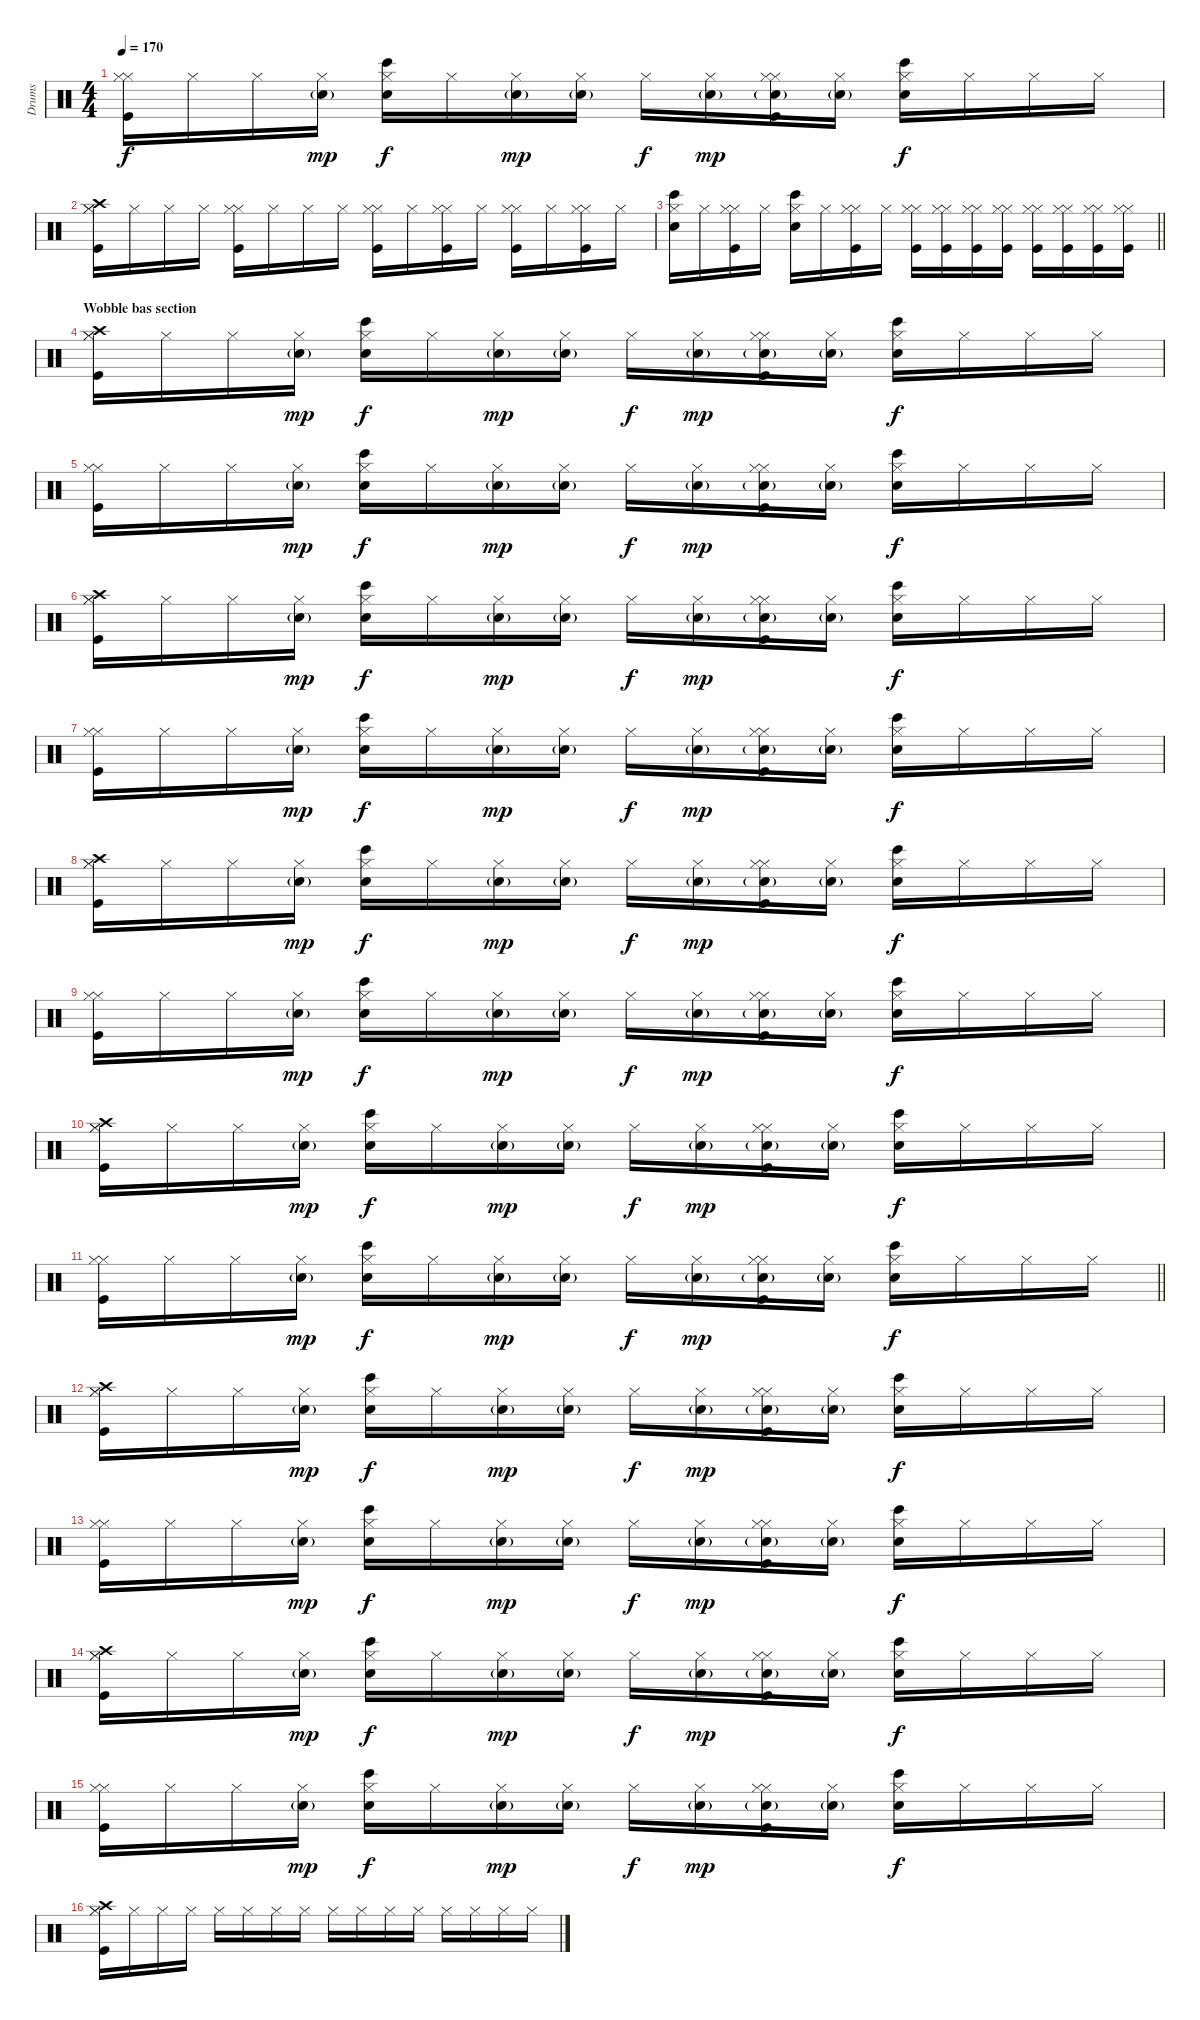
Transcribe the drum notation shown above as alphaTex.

\track ("Drums" "Drums") {instrument percussion}
\staff {score}
\articulation defaults
\ts (4 4)
\tempo 170
\clef neutral
\ks c
("Hi-Hat (closed)" "Kick (hit)" "Hi-Hat (closed)").16{dy f} "Hi-Hat (closed)".16 "Hi-Hat (closed)".16 ("Snare (hit) 2"{g} "Hi-Hat (closed)").16{dy mp} ("Bongo High (hit)" "Snare (hit) 2" "Hi-Hat (closed)").16{dy f} "Hi-Hat (closed)".16 ("Snare (hit) 2"{g} "Hi-Hat (closed)").16{dy mp} ("Snare (hit) 2"{g} "Hi-Hat (closed)").16 "Hi-Hat (closed)".16{dy f} ("Snare (hit) 2"{g} "Hi-Hat (closed)").16{dy mp} ("Kick (hit)" "Hi-Hat (closed)" "Snare (hit) 2"{g} "Hi-Hat (closed)").16 ("Snare (hit) 2"{g} "Hi-Hat (closed)").16 ("Bongo High (hit)" "Snare (hit) 2" "Hi-Hat (closed)").16{dy f} "Hi-Hat (closed)".16 "Hi-Hat (closed)".16 "Hi-Hat (closed)".16 |
("Kick (hit)" "Hi-Hat (closed)" "Hi-Hat (closed)" "Crash high (hit)").16 "Hi-Hat (closed)".16 "Hi-Hat (closed)".16 "Hi-Hat (closed)".16 ("Kick (hit)" "Hi-Hat (closed)" "Hi-Hat (closed)").16 "Hi-Hat (closed)".16 "Hi-Hat (closed)".16 "Hi-Hat (closed)".16 ("Kick (hit)" "Hi-Hat (closed)" "Hi-Hat (closed)").16 "Hi-Hat (closed)".16 ("Kick (hit)" "Hi-Hat (closed)" "Hi-Hat (closed)").16 "Hi-Hat (closed)".16 ("Kick (hit)" "Hi-Hat (closed)" "Hi-Hat (closed)").16 "Hi-Hat (closed)".16 ("Kick (hit)" "Hi-Hat (closed)" "Hi-Hat (closed)").16 "Hi-Hat (closed)".16 |
\barLineRight lightlight
("Snare (hit) 2" "Bongo High (hit)" "Hi-Hat (closed)").16 "Hi-Hat (closed)".16 ("Hi-Hat (closed)" "Kick (hit)" "Hi-Hat (closed)").16 "Hi-Hat (closed)".16 ("Snare (hit) 2" "Bongo High (hit)" "Hi-Hat (closed)").16 "Hi-Hat (closed)".16 ("Hi-Hat (closed)" "Kick (hit)" "Hi-Hat (closed)").16 "Hi-Hat (closed)".16 ("Kick (hit)" "Hi-Hat (closed)" "Hi-Hat (closed)").16 ("Kick (hit)" "Hi-Hat (closed)" "Hi-Hat (closed)").16 ("Kick (hit)" "Hi-Hat (closed)" "Hi-Hat (closed)").16 ("Kick (hit)" "Hi-Hat (closed)" "Hi-Hat (closed)").16 ("Kick (hit)" "Hi-Hat (closed)" "Hi-Hat (closed)").16 ("Kick (hit)" "Hi-Hat (closed)" "Hi-Hat (closed)").16 ("Kick (hit)" "Hi-Hat (closed)" "Hi-Hat (closed)").16 ("Kick (hit)" "Hi-Hat (closed)" "Hi-Hat (closed)").16 |
\section ("" "Wobble bas section")
("Kick (hit)" "Hi-Hat (closed)" "Hi-Hat (closed)" "Crash high (hit)").16 "Hi-Hat (closed)".16 "Hi-Hat (closed)".16 ("Snare (hit) 2"{g} "Hi-Hat (closed)").16{dy mp} ("Bongo High (hit)" "Snare (hit) 2" "Hi-Hat (closed)").16{dy f} "Hi-Hat (closed)".16 ("Snare (hit) 2"{g} "Hi-Hat (closed)").16{dy mp} ("Snare (hit) 2"{g} "Hi-Hat (closed)").16 "Hi-Hat (closed)".16{dy f} ("Snare (hit) 2"{g} "Hi-Hat (closed)").16{dy mp} ("Kick (hit)" "Hi-Hat (closed)" "Snare (hit) 2"{g} "Hi-Hat (closed)").16 ("Snare (hit) 2"{g} "Hi-Hat (closed)").16 ("Bongo High (hit)" "Snare (hit) 2" "Hi-Hat (closed)").16{dy f} "Hi-Hat (closed)".16 "Hi-Hat (closed)".16 "Hi-Hat (closed)".16 |
("Hi-Hat (closed)" "Kick (hit)" "Hi-Hat (closed)").16 "Hi-Hat (closed)".16 "Hi-Hat (closed)".16 ("Snare (hit) 2"{g} "Hi-Hat (closed)").16{dy mp} ("Bongo High (hit)" "Snare (hit) 2" "Hi-Hat (closed)").16{dy f} "Hi-Hat (closed)".16 ("Snare (hit) 2"{g} "Hi-Hat (closed)").16{dy mp} ("Snare (hit) 2"{g} "Hi-Hat (closed)").16 "Hi-Hat (closed)".16{dy f} ("Snare (hit) 2"{g} "Hi-Hat (closed)").16{dy mp} ("Kick (hit)" "Hi-Hat (closed)" "Snare (hit) 2"{g} "Hi-Hat (closed)").16 ("Snare (hit) 2"{g} "Hi-Hat (closed)").16 ("Bongo High (hit)" "Snare (hit) 2" "Hi-Hat (closed)").16{dy f} "Hi-Hat (closed)".16 "Hi-Hat (closed)".16 "Hi-Hat (closed)".16 |
("Kick (hit)" "Hi-Hat (closed)" "Hi-Hat (closed)" "Crash high (hit)").16 "Hi-Hat (closed)".16 "Hi-Hat (closed)".16 ("Snare (hit) 2"{g} "Hi-Hat (closed)").16{dy mp} ("Bongo High (hit)" "Snare (hit) 2" "Hi-Hat (closed)").16{dy f} "Hi-Hat (closed)".16 ("Snare (hit) 2"{g} "Hi-Hat (closed)").16{dy mp} ("Snare (hit) 2"{g} "Hi-Hat (closed)").16 "Hi-Hat (closed)".16{dy f} ("Snare (hit) 2"{g} "Hi-Hat (closed)").16{dy mp} ("Kick (hit)" "Hi-Hat (closed)" "Snare (hit) 2"{g} "Hi-Hat (closed)").16 ("Snare (hit) 2"{g} "Hi-Hat (closed)").16 ("Bongo High (hit)" "Snare (hit) 2" "Hi-Hat (closed)").16{dy f} "Hi-Hat (closed)".16 "Hi-Hat (closed)".16 "Hi-Hat (closed)".16 |
("Hi-Hat (closed)" "Kick (hit)" "Hi-Hat (closed)").16 "Hi-Hat (closed)".16 "Hi-Hat (closed)".16 ("Snare (hit) 2"{g} "Hi-Hat (closed)").16{dy mp} ("Bongo High (hit)" "Snare (hit) 2" "Hi-Hat (closed)").16{dy f} "Hi-Hat (closed)".16 ("Snare (hit) 2"{g} "Hi-Hat (closed)").16{dy mp} ("Snare (hit) 2"{g} "Hi-Hat (closed)").16 "Hi-Hat (closed)".16{dy f} ("Snare (hit) 2"{g} "Hi-Hat (closed)").16{dy mp} ("Kick (hit)" "Hi-Hat (closed)" "Snare (hit) 2"{g} "Hi-Hat (closed)").16 ("Snare (hit) 2"{g} "Hi-Hat (closed)").16 ("Bongo High (hit)" "Snare (hit) 2" "Hi-Hat (closed)").16{dy f} "Hi-Hat (closed)".16 "Hi-Hat (closed)".16 "Hi-Hat (closed)".16 |
("Kick (hit)" "Hi-Hat (closed)" "Hi-Hat (closed)" "Crash high (hit)").16 "Hi-Hat (closed)".16 "Hi-Hat (closed)".16 ("Snare (hit) 2"{g} "Hi-Hat (closed)").16{dy mp} ("Bongo High (hit)" "Snare (hit) 2" "Hi-Hat (closed)").16{dy f} "Hi-Hat (closed)".16 ("Snare (hit) 2"{g} "Hi-Hat (closed)").16{dy mp} ("Snare (hit) 2"{g} "Hi-Hat (closed)").16 "Hi-Hat (closed)".16{dy f} ("Snare (hit) 2"{g} "Hi-Hat (closed)").16{dy mp} ("Kick (hit)" "Hi-Hat (closed)" "Snare (hit) 2"{g} "Hi-Hat (closed)").16 ("Snare (hit) 2"{g} "Hi-Hat (closed)").16 ("Bongo High (hit)" "Snare (hit) 2" "Hi-Hat (closed)").16{dy f} "Hi-Hat (closed)".16 "Hi-Hat (closed)".16 "Hi-Hat (closed)".16 |
("Hi-Hat (closed)" "Kick (hit)" "Hi-Hat (closed)").16 "Hi-Hat (closed)".16 "Hi-Hat (closed)".16 ("Snare (hit) 2"{g} "Hi-Hat (closed)").16{dy mp} ("Bongo High (hit)" "Snare (hit) 2" "Hi-Hat (closed)").16{dy f} "Hi-Hat (closed)".16 ("Snare (hit) 2"{g} "Hi-Hat (closed)").16{dy mp} ("Snare (hit) 2"{g} "Hi-Hat (closed)").16 "Hi-Hat (closed)".16{dy f} ("Snare (hit) 2"{g} "Hi-Hat (closed)").16{dy mp} ("Kick (hit)" "Hi-Hat (closed)" "Snare (hit) 2"{g} "Hi-Hat (closed)").16 ("Snare (hit) 2"{g} "Hi-Hat (closed)").16 ("Bongo High (hit)" "Snare (hit) 2" "Hi-Hat (closed)").16{dy f} "Hi-Hat (closed)".16 "Hi-Hat (closed)".16 "Hi-Hat (closed)".16 |
("Kick (hit)" "Hi-Hat (closed)" "Hi-Hat (closed)" "Crash high (hit)").16 "Hi-Hat (closed)".16 "Hi-Hat (closed)".16 ("Snare (hit) 2"{g} "Hi-Hat (closed)").16{dy mp} ("Bongo High (hit)" "Snare (hit) 2" "Hi-Hat (closed)").16{dy f} "Hi-Hat (closed)".16 ("Snare (hit) 2"{g} "Hi-Hat (closed)").16{dy mp} ("Snare (hit) 2"{g} "Hi-Hat (closed)").16 "Hi-Hat (closed)".16{dy f} ("Snare (hit) 2"{g} "Hi-Hat (closed)").16{dy mp} ("Kick (hit)" "Hi-Hat (closed)" "Snare (hit) 2"{g} "Hi-Hat (closed)").16 ("Snare (hit) 2"{g} "Hi-Hat (closed)").16 ("Bongo High (hit)" "Snare (hit) 2" "Hi-Hat (closed)").16{dy f} "Hi-Hat (closed)".16 "Hi-Hat (closed)".16 "Hi-Hat (closed)".16 |
\barLineRight lightlight
("Hi-Hat (closed)" "Kick (hit)" "Hi-Hat (closed)").16 "Hi-Hat (closed)".16 "Hi-Hat (closed)".16 ("Snare (hit) 2"{g} "Hi-Hat (closed)").16{dy mp} ("Bongo High (hit)" "Snare (hit) 2" "Hi-Hat (closed)").16{dy f} "Hi-Hat (closed)".16 ("Snare (hit) 2"{g} "Hi-Hat (closed)").16{dy mp} ("Snare (hit) 2"{g} "Hi-Hat (closed)").16 "Hi-Hat (closed)".16{dy f} ("Snare (hit) 2"{g} "Hi-Hat (closed)").16{dy mp} ("Kick (hit)" "Hi-Hat (closed)" "Snare (hit) 2"{g} "Hi-Hat (closed)").16 ("Snare (hit) 2"{g} "Hi-Hat (closed)").16 ("Bongo High (hit)" "Snare (hit) 2" "Hi-Hat (closed)").16{dy f} "Hi-Hat (closed)".16 "Hi-Hat (closed)".16 "Hi-Hat (closed)".16 |
("Kick (hit)" "Hi-Hat (closed)" "Hi-Hat (closed)" "Crash high (hit)").16 "Hi-Hat (closed)".16 "Hi-Hat (closed)".16 ("Snare (hit) 2"{g} "Hi-Hat (closed)").16{dy mp} ("Bongo High (hit)" "Snare (hit) 2" "Hi-Hat (closed)").16{dy f} "Hi-Hat (closed)".16 ("Snare (hit) 2"{g} "Hi-Hat (closed)").16{dy mp} ("Snare (hit) 2"{g} "Hi-Hat (closed)").16 "Hi-Hat (closed)".16{dy f} ("Snare (hit) 2"{g} "Hi-Hat (closed)").16{dy mp} ("Kick (hit)" "Hi-Hat (closed)" "Snare (hit) 2"{g} "Hi-Hat (closed)").16 ("Snare (hit) 2"{g} "Hi-Hat (closed)").16 ("Bongo High (hit)" "Snare (hit) 2" "Hi-Hat (closed)").16{dy f} "Hi-Hat (closed)".16 "Hi-Hat (closed)".16 "Hi-Hat (closed)".16 |
("Hi-Hat (closed)" "Kick (hit)" "Hi-Hat (closed)").16 "Hi-Hat (closed)".16 "Hi-Hat (closed)".16 ("Snare (hit) 2"{g} "Hi-Hat (closed)").16{dy mp} ("Bongo High (hit)" "Snare (hit) 2" "Hi-Hat (closed)").16{dy f} "Hi-Hat (closed)".16 ("Snare (hit) 2"{g} "Hi-Hat (closed)").16{dy mp} ("Snare (hit) 2"{g} "Hi-Hat (closed)").16 "Hi-Hat (closed)".16{dy f} ("Snare (hit) 2"{g} "Hi-Hat (closed)").16{dy mp} ("Kick (hit)" "Hi-Hat (closed)" "Snare (hit) 2"{g} "Hi-Hat (closed)").16 ("Snare (hit) 2"{g} "Hi-Hat (closed)").16 ("Bongo High (hit)" "Snare (hit) 2" "Hi-Hat (closed)").16{dy f} "Hi-Hat (closed)".16 "Hi-Hat (closed)".16 "Hi-Hat (closed)".16 |
("Kick (hit)" "Hi-Hat (closed)" "Hi-Hat (closed)" "Crash high (hit)").16 "Hi-Hat (closed)".16 "Hi-Hat (closed)".16 ("Snare (hit) 2"{g} "Hi-Hat (closed)").16{dy mp} ("Bongo High (hit)" "Snare (hit) 2" "Hi-Hat (closed)").16{dy f} "Hi-Hat (closed)".16 ("Snare (hit) 2"{g} "Hi-Hat (closed)").16{dy mp} ("Snare (hit) 2"{g} "Hi-Hat (closed)").16 "Hi-Hat (closed)".16{dy f} ("Snare (hit) 2"{g} "Hi-Hat (closed)").16{dy mp} ("Kick (hit)" "Hi-Hat (closed)" "Snare (hit) 2"{g} "Hi-Hat (closed)").16 ("Snare (hit) 2"{g} "Hi-Hat (closed)").16 ("Bongo High (hit)" "Snare (hit) 2" "Hi-Hat (closed)").16{dy f} "Hi-Hat (closed)".16 "Hi-Hat (closed)".16 "Hi-Hat (closed)".16 |
("Hi-Hat (closed)" "Kick (hit)" "Hi-Hat (closed)").16 "Hi-Hat (closed)".16 "Hi-Hat (closed)".16 ("Snare (hit) 2"{g} "Hi-Hat (closed)").16{dy mp} ("Bongo High (hit)" "Snare (hit) 2" "Hi-Hat (closed)").16{dy f} "Hi-Hat (closed)".16 ("Snare (hit) 2"{g} "Hi-Hat (closed)").16{dy mp} ("Snare (hit) 2"{g} "Hi-Hat (closed)").16 "Hi-Hat (closed)".16{dy f} ("Snare (hit) 2"{g} "Hi-Hat (closed)").16{dy mp} ("Kick (hit)" "Hi-Hat (closed)" "Snare (hit) 2"{g} "Hi-Hat (closed)").16 ("Snare (hit) 2"{g} "Hi-Hat (closed)").16 ("Bongo High (hit)" "Snare (hit) 2" "Hi-Hat (closed)").16{dy f} "Hi-Hat (closed)".16 "Hi-Hat (closed)".16 "Hi-Hat (closed)".16 |
("Kick (hit)" "Hi-Hat (closed)" "Hi-Hat (closed)" "Crash high (hit)").16 "Hi-Hat (closed)".16 "Hi-Hat (closed)".16 "Hi-Hat (closed)".16 "Hi-Hat (closed)".16 "Hi-Hat (closed)".16 "Hi-Hat (closed)".16 "Hi-Hat (closed)".16 "Hi-Hat (closed)".16 "Hi-Hat (closed)".16 "Hi-Hat (closed)".16 "Hi-Hat (closed)".16 "Hi-Hat (closed)".16 "Hi-Hat (closed)".16 "Hi-Hat (closed)".16 "Hi-Hat (closed)".16
